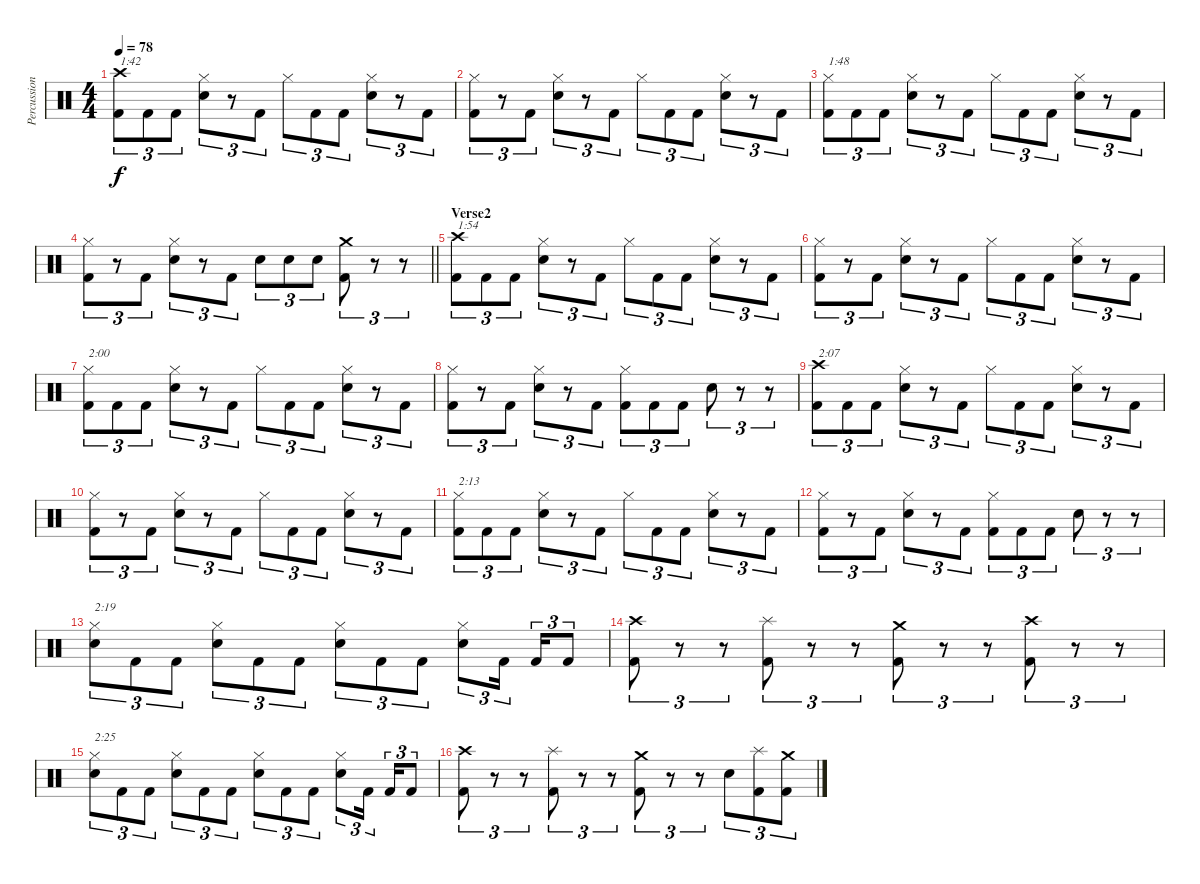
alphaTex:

\track ("Percussion" "Percussion") {instrument percussion}
\staff {score}
\articulation defaults
\ts (4 4)
\tempo 78
\clef neutral
\ks c
("Crash high (hit)" "Kick (hit) 2").8{tu (3 2) txt "1:42" dy f} "Kick (hit) 2".8{tu (3 2)} "Kick (hit) 2".8{tu (3 2)} ("Hi-Hat (closed)" "Electric Snare (hit)").8{tu (3 2)} r.8{tu (3 2)} "Kick (hit) 2".8{tu (3 2)} "Hi-Hat (closed)".8{tu (3 2)} "Kick (hit) 2".8{tu (3 2)} "Kick (hit) 2".8{tu (3 2)} ("Hi-Hat (closed)" "Electric Snare (hit)").8{tu (3 2)} r.8{tu (3 2)} "Kick (hit) 2".8{tu (3 2)} |
("Hi-Hat (closed)" "Kick (hit) 2").8{tu (3 2)} r.8{tu (3 2)} "Kick (hit) 2".8{tu (3 2)} ("Hi-Hat (closed)" "Electric Snare (hit)").8{tu (3 2)} r.8{tu (3 2)} "Kick (hit) 2".8{tu (3 2)} "Hi-Hat (closed)".8{tu (3 2)} "Kick (hit) 2".8{tu (3 2)} "Kick (hit) 2".8{tu (3 2)} ("Hi-Hat (closed)" "Electric Snare (hit)").8{tu (3 2)} r.8{tu (3 2)} "Kick (hit) 2".8{tu (3 2)} |
("Hi-Hat (closed)" "Kick (hit) 2").8{tu (3 2) txt "1:48"} "Kick (hit) 2".8{tu (3 2)} "Kick (hit) 2".8{tu (3 2)} ("Hi-Hat (closed)" "Electric Snare (hit)").8{tu (3 2)} r.8{tu (3 2)} "Kick (hit) 2".8{tu (3 2)} "Hi-Hat (closed)".8{tu (3 2)} "Kick (hit) 2".8{tu (3 2)} "Kick (hit) 2".8{tu (3 2)} ("Hi-Hat (closed)" "Electric Snare (hit)").8{tu (3 2)} r.8{tu (3 2)} "Kick (hit) 2".8{tu (3 2)} |
\barLineRight lightlight
("Hi-Hat (closed)" "Kick (hit) 2").8{tu (3 2)} r.8{tu (3 2)} "Kick (hit) 2".8{tu (3 2)} ("Hi-Hat (closed)" "Electric Snare (hit)").8{tu (3 2)} r.8{tu (3 2)} "Kick (hit) 2".8{tu (3 2)} "Electric Snare (hit)".8{tu (3 2)} "Electric Snare (hit)".8{tu (3 2)} "Electric Snare (hit)".8{tu (3 2)} ("Crash medium (hit)" "Kick (hit) 2").8{tu (3 2)} r.8{tu (3 2)} r.8{tu (3 2)} |
\section ("" "Verse2")
("Crash high (hit)" "Kick (hit) 2").8{tu (3 2) txt "1:54"} "Kick (hit) 2".8{tu (3 2)} "Kick (hit) 2".8{tu (3 2)} ("Hi-Hat (closed)" "Electric Snare (hit)").8{tu (3 2)} r.8{tu (3 2)} "Kick (hit) 2".8{tu (3 2)} "Hi-Hat (closed)".8{tu (3 2)} "Kick (hit) 2".8{tu (3 2)} "Kick (hit) 2".8{tu (3 2)} ("Hi-Hat (closed)" "Electric Snare (hit)").8{tu (3 2)} r.8{tu (3 2)} "Kick (hit) 2".8{tu (3 2)} |
("Hi-Hat (closed)" "Kick (hit) 2").8{tu (3 2)} r.8{tu (3 2)} "Kick (hit) 2".8{tu (3 2)} ("Hi-Hat (closed)" "Electric Snare (hit)").8{tu (3 2)} r.8{tu (3 2)} "Kick (hit) 2".8{tu (3 2)} "Hi-Hat (closed)".8{tu (3 2)} "Kick (hit) 2".8{tu (3 2)} "Kick (hit) 2".8{tu (3 2)} ("Hi-Hat (closed)" "Electric Snare (hit)").8{tu (3 2)} r.8{tu (3 2)} "Kick (hit) 2".8{tu (3 2)} |
("Hi-Hat (closed)" "Kick (hit) 2").8{tu (3 2) txt "2:00"} "Kick (hit) 2".8{tu (3 2)} "Kick (hit) 2".8{tu (3 2)} ("Hi-Hat (closed)" "Electric Snare (hit)").8{tu (3 2)} r.8{tu (3 2)} "Kick (hit) 2".8{tu (3 2)} "Hi-Hat (closed)".8{tu (3 2)} "Kick (hit) 2".8{tu (3 2)} "Kick (hit) 2".8{tu (3 2)} ("Hi-Hat (closed)" "Electric Snare (hit)").8{tu (3 2)} r.8{tu (3 2)} "Kick (hit) 2".8{tu (3 2)} |
("Hi-Hat (closed)" "Kick (hit) 2").8{tu (3 2)} r.8{tu (3 2)} "Kick (hit) 2".8{tu (3 2)} ("Hi-Hat (closed)" "Electric Snare (hit)").8{tu (3 2)} r.8{tu (3 2)} "Kick (hit) 2".8{tu (3 2)} ("Hi-Hat (closed)" "Kick (hit) 2").8{tu (3 2)} "Kick (hit) 2".8{tu (3 2)} "Kick (hit) 2".8{tu (3 2)} "Electric Snare (hit)".8{tu (3 2)} r.8{tu (3 2)} r.8{tu (3 2)} |
("Crash high (hit)" "Kick (hit) 2").8{tu (3 2) txt "2:07"} "Kick (hit) 2".8{tu (3 2)} "Kick (hit) 2".8{tu (3 2)} ("Hi-Hat (closed)" "Electric Snare (hit)").8{tu (3 2)} r.8{tu (3 2)} "Kick (hit) 2".8{tu (3 2)} "Hi-Hat (closed)".8{tu (3 2)} "Kick (hit) 2".8{tu (3 2)} "Kick (hit) 2".8{tu (3 2)} ("Hi-Hat (closed)" "Electric Snare (hit)").8{tu (3 2)} r.8{tu (3 2)} "Kick (hit) 2".8{tu (3 2)} |
("Hi-Hat (closed)" "Kick (hit) 2").8{tu (3 2)} r.8{tu (3 2)} "Kick (hit) 2".8{tu (3 2)} ("Hi-Hat (closed)" "Electric Snare (hit)").8{tu (3 2)} r.8{tu (3 2)} "Kick (hit) 2".8{tu (3 2)} "Hi-Hat (closed)".8{tu (3 2)} "Kick (hit) 2".8{tu (3 2)} "Kick (hit) 2".8{tu (3 2)} ("Hi-Hat (closed)" "Electric Snare (hit)").8{tu (3 2)} r.8{tu (3 2)} "Kick (hit) 2".8{tu (3 2)} |
("Hi-Hat (closed)" "Kick (hit) 2").8{tu (3 2) txt "2:13"} "Kick (hit) 2".8{tu (3 2)} "Kick (hit) 2".8{tu (3 2)} ("Hi-Hat (closed)" "Electric Snare (hit)").8{tu (3 2)} r.8{tu (3 2)} "Kick (hit) 2".8{tu (3 2)} "Hi-Hat (closed)".8{tu (3 2)} "Kick (hit) 2".8{tu (3 2)} "Kick (hit) 2".8{tu (3 2)} ("Hi-Hat (closed)" "Electric Snare (hit)").8{tu (3 2)} r.8{tu (3 2)} "Kick (hit) 2".8{tu (3 2)} |
("Hi-Hat (closed)" "Kick (hit) 2").8{tu (3 2)} r.8{tu (3 2)} "Kick (hit) 2".8{tu (3 2)} ("Hi-Hat (closed)" "Electric Snare (hit)").8{tu (3 2)} r.8{tu (3 2)} "Kick (hit) 2".8{tu (3 2)} ("Hi-Hat (closed)" "Kick (hit) 2").8{tu (3 2)} "Kick (hit) 2".8{tu (3 2)} "Kick (hit) 2".8{tu (3 2)} "Electric Snare (hit)".8{tu (3 2)} r.8{tu (3 2)} r.8{tu (3 2)} |
("Hi-Hat (closed)" "Electric Snare (hit)").8{tu (3 2) txt "2:19"} "Kick (hit) 2".8{tu (3 2)} "Kick (hit) 2".8{tu (3 2)} ("Hi-Hat (closed)" "Electric Snare (hit)").8{tu (3 2)} "Kick (hit) 2".8{tu (3 2)} "Kick (hit) 2".8{tu (3 2)} ("Hi-Hat (closed)" "Electric Snare (hit)").8{tu (3 2)} "Kick (hit) 2".8{tu (3 2)} "Kick (hit) 2".8{tu (3 2)} ("Hi-Hat (closed)" "Electric Snare (hit)").8{tu (3 2)} "Kick (hit) 2".16{tu (3 2)} "Kick (hit) 2".16{tu (3 2)} "Kick (hit) 2".8{tu (3 2)} |
("Crash high (hit)" "Kick (hit) 2").8{tu (3 2)} r.8{tu (3 2)} r.8{tu (3 2)} ("Splash (hit)" "Kick (hit) 2").8{tu (3 2)} r.8{tu (3 2)} r.8{tu (3 2)} ("Crash medium (hit)" "Kick (hit) 2").8{tu (3 2)} r.8{tu (3 2)} r.8{tu (3 2)} ("Crash high (hit)" "Kick (hit) 2").8{tu (3 2)} r.8{tu (3 2)} r.8{tu (3 2)} |
("Hi-Hat (closed)" "Electric Snare (hit)").8{tu (3 2) txt "2:25"} "Kick (hit) 2".8{tu (3 2)} "Kick (hit) 2".8{tu (3 2)} ("Hi-Hat (closed)" "Electric Snare (hit)").8{tu (3 2)} "Kick (hit) 2".8{tu (3 2)} "Kick (hit) 2".8{tu (3 2)} ("Hi-Hat (closed)" "Electric Snare (hit)").8{tu (3 2)} "Kick (hit) 2".8{tu (3 2)} "Kick (hit) 2".8{tu (3 2)} ("Hi-Hat (closed)" "Electric Snare (hit)").8{tu (3 2)} "Kick (hit) 2".16{tu (3 2)} "Kick (hit) 2".16{tu (3 2)} "Kick (hit) 2".8{tu (3 2)} |
("Crash high (hit)" "Kick (hit) 2").8{tu (3 2)} r.8{tu (3 2)} r.8{tu (3 2)} ("Splash (hit)" "Kick (hit) 2").8{tu (3 2)} r.8{tu (3 2)} r.8{tu (3 2)} ("Crash medium (hit)" "Kick (hit) 2").8{tu (3 2)} r.8{tu (3 2)} r.8{tu (3 2)} "Electric Snare (hit)".8{tu (3 2)} ("Splash (hit)" "Kick (hit) 2").8{tu (3 2)} ("Crash medium (hit)" "Kick (hit) 2").8{tu (3 2)}
